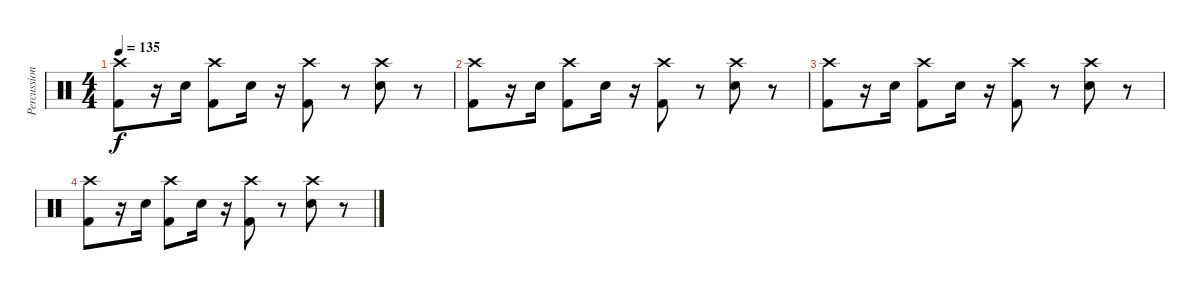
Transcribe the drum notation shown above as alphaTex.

\track ("Percussions" "Percussion") {instrument percussion}
\staff {score}
\articulation defaults
\ts (4 4)
\tempo 135
\clef neutral
\ks c
("Crash high (hit)" "Kick (hit) 2").8{dy f} r.16 "Snare (hit) 2".16 ("Crash high (hit)" "Kick (hit) 2").8 "Snare (hit) 2".16 r.16 ("Crash high (hit)" "Kick (hit) 2").8 r.8 ("Crash high (hit)" "Snare (hit) 2").8 r.8 |
("Crash high (hit)" "Kick (hit) 2").8 r.16 "Snare (hit) 2".16 ("Crash high (hit)" "Kick (hit) 2").8 "Snare (hit) 2".16 r.16 ("Crash high (hit)" "Kick (hit) 2").8 r.8 ("Crash high (hit)" "Snare (hit) 2").8 r.8 |
("Crash high (hit)" "Kick (hit) 2").8 r.16 "Snare (hit) 2".16 ("Crash high (hit)" "Kick (hit) 2").8 "Snare (hit) 2".16 r.16 ("Crash high (hit)" "Kick (hit) 2").8 r.8 ("Crash high (hit)" "Snare (hit) 2").8 r.8 |
("Crash high (hit)" "Kick (hit) 2").8 r.16 "Snare (hit) 2".16 ("Crash high (hit)" "Kick (hit) 2").8 "Snare (hit) 2".16 r.16 ("Crash high (hit)" "Kick (hit) 2").8 r.8 ("Crash high (hit)" "Snare (hit) 2").8 r.8
